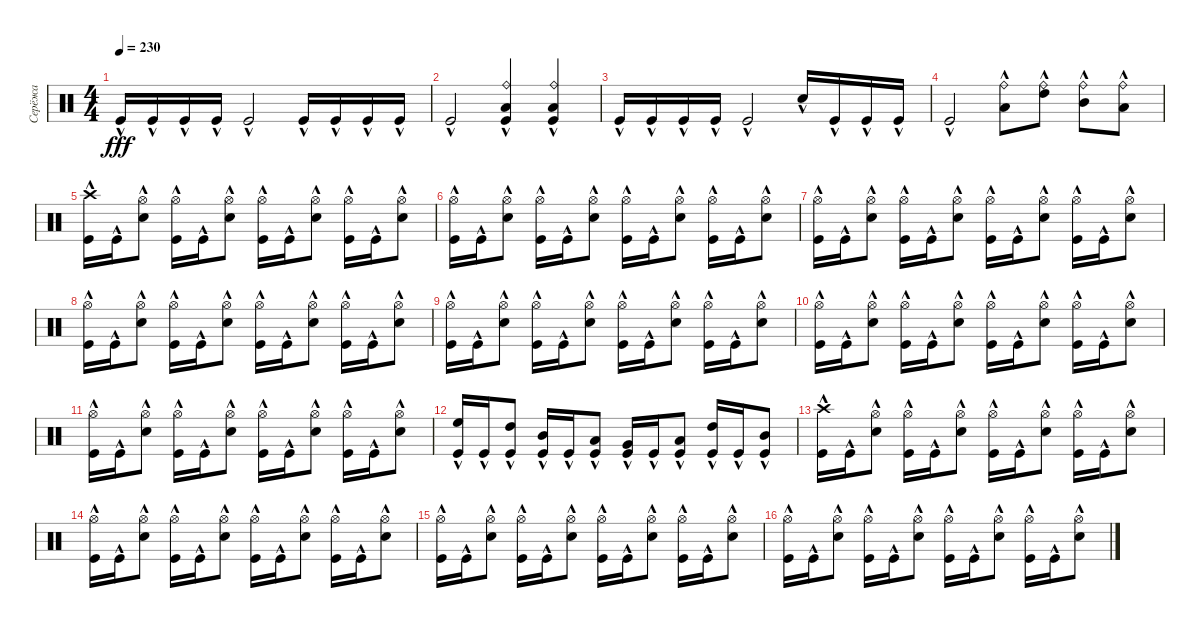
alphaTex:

\track ("Серёжа" "Серёжа") {instrument percussion}
\staff {score}
\articulation defaults
\ts (4 4)
\tempo 230
\clef neutral
\ks c "Kick (hit)"{hac}.16{dy fff} "Kick (hit)"{hac}.16 "Kick (hit)"{hac}.16 "Kick (hit)"{hac}.16 "Kick (hit)"{hac}.2 "Kick (hit)"{hac}.16 "Kick (hit)"{hac}.16 "Kick (hit)"{hac}.16 "Kick (hit)"{hac}.16
|
"Kick (hit)"{hac}.2 ("Ride (bell)" "Low Tom (hit)"{hac} "Kick (hit)"{hac}).4 ("Ride (bell)" "Low Tom (hit)"{hac} "Kick (hit)"{hac}).4 |
"Kick (hit)"{hac}.16 "Kick (hit)"{hac}.16 "Kick (hit)"{hac}.16 "Kick (hit)"{hac}.16 "Kick (hit)"{hac}.2 "Snare (hit) 2"{hac}.16 "Kick (hit)"{hac}.16 "Kick (hit)"{hac}.16 "Kick (hit)"{hac}.16 |
"Kick (hit)"{hac}.2 ("Ride (bell)" "Low Tom (hit)"{hac}).8 ("Ride (bell)" "High Tom (hit)"{hac}).8 ("Ride (bell)" "Mid Tom (hit)"{hac}).8 ("Ride (bell)" "Low Tom (hit)"{hac}).8 |
("Crash high (hit)" "Kick (hit)"{hac}).16 "Kick (hit)"{hac}.16 ("Hi-Hat (open)" "Snare (hit) 2"{hac}).8 ("Hi-Hat (open)" "Kick (hit)"{hac}).16 "Kick (hit)"{hac}.16 ("Hi-Hat (open)" "Snare (hit) 2"{hac}).8 ("Hi-Hat (open)" "Kick (hit)"{hac}).16 "Kick (hit)"{hac}.16 ("Hi-Hat (open)" "Snare (hit) 2"{hac}).8 ("Hi-Hat (open)" "Kick (hit)"{hac}).16 "Kick (hit)"{hac}.16 ("Hi-Hat (open)" "Snare (hit) 2"{hac}).8 |
("Hi-Hat (open)" "Kick (hit)"{hac}).16 "Kick (hit)"{hac}.16 ("Hi-Hat (open)" "Snare (hit) 2"{hac}).8 ("Hi-Hat (open)" "Kick (hit)"{hac}).16 "Kick (hit)"{hac}.16 ("Hi-Hat (open)" "Snare (hit) 2"{hac}).8 ("Hi-Hat (open)" "Kick (hit)"{hac}).16 "Kick (hit)"{hac}.16 ("Hi-Hat (open)" "Snare (hit) 2"{hac}).8 ("Hi-Hat (open)" "Kick (hit)"{hac}).16 "Kick (hit)"{hac}.16 ("Hi-Hat (open)" "Snare (hit) 2"{hac}).8 |
("Hi-Hat (open)" "Kick (hit)"{hac}).16 "Kick (hit)"{hac}.16 ("Hi-Hat (open)" "Snare (hit) 2"{hac}).8 ("Hi-Hat (open)" "Kick (hit)"{hac}).16 "Kick (hit)"{hac}.16 ("Hi-Hat (open)" "Snare (hit) 2"{hac}).8 ("Hi-Hat (open)" "Kick (hit)"{hac}).16 "Kick (hit)"{hac}.16 ("Hi-Hat (open)" "Snare (hit) 2"{hac}).8 ("Hi-Hat (open)" "Kick (hit)"{hac}).16 "Kick (hit)"{hac}.16 ("Hi-Hat (open)" "Snare (hit) 2"{hac}).8 |
("Hi-Hat (open)" "Kick (hit)"{hac}).16 "Kick (hit)"{hac}.16 ("Hi-Hat (open)" "Snare (hit) 2"{hac}).8 ("Hi-Hat (open)" "Kick (hit)"{hac}).16 "Kick (hit)"{hac}.16 ("Hi-Hat (open)" "Snare (hit) 2"{hac}).8 ("Hi-Hat (open)" "Kick (hit)"{hac}).16 "Kick (hit)"{hac}.16 ("Hi-Hat (open)" "Snare (hit) 2"{hac}).8 ("Hi-Hat (open)" "Kick (hit)"{hac}).16 "Kick (hit)"{hac}.16 ("Hi-Hat (open)" "Snare (hit) 2"{hac}).8 |
("Hi-Hat (open)" "Kick (hit)"{hac}).16 "Kick (hit)"{hac}.16 ("Hi-Hat (open)" "Snare (hit) 2"{hac}).8 ("Hi-Hat (open)" "Kick (hit)"{hac}).16 "Kick (hit)"{hac}.16 ("Hi-Hat (open)" "Snare (hit) 2"{hac}).8 ("Hi-Hat (open)" "Kick (hit)"{hac}).16 "Kick (hit)"{hac}.16 ("Hi-Hat (open)" "Snare (hit) 2"{hac}).8 ("Hi-Hat (open)" "Kick (hit)"{hac}).16 "Kick (hit)"{hac}.16 ("Hi-Hat (open)" "Snare (hit) 2"{hac}).8 |
("Hi-Hat (open)" "Kick (hit)"{hac}).16 "Kick (hit)"{hac}.16 ("Hi-Hat (open)" "Snare (hit) 2"{hac}).8 ("Hi-Hat (open)" "Kick (hit)"{hac}).16 "Kick (hit)"{hac}.16 ("Hi-Hat (open)" "Snare (hit) 2"{hac}).8 ("Hi-Hat (open)" "Kick (hit)"{hac}).16 "Kick (hit)"{hac}.16 ("Hi-Hat (open)" "Snare (hit) 2"{hac}).8 ("Hi-Hat (open)" "Kick (hit)"{hac}).16 "Kick (hit)"{hac}.16 ("Hi-Hat (open)" "Snare (hit) 2"{hac}).8 |
("Hi-Hat (open)" "Kick (hit)"{hac}).16 "Kick (hit)"{hac}.16 ("Hi-Hat (open)" "Snare (hit) 2"{hac}).8 ("Hi-Hat (open)" "Kick (hit)"{hac}).16 "Kick (hit)"{hac}.16 ("Hi-Hat (open)" "Snare (hit) 2"{hac}).8 ("Hi-Hat (open)" "Kick (hit)"{hac}).16 "Kick (hit)"{hac}.16 ("Hi-Hat (open)" "Snare (hit) 2"{hac}).8 ("Hi-Hat (open)" "Kick (hit)"{hac}).16 "Kick (hit)"{hac}.16 ("Hi-Hat (open)" "Snare (hit) 2"{hac}).8 |
("High Floor Tom (hit)"{hac} "Kick (hit)"{hac}).16 "Kick (hit)"{hac}.16 ("High Tom (hit)"{hac} "Kick (hit)"{hac}).8 ("Mid Tom (hit)"{hac} "Kick (hit)"{hac}).16 "Kick (hit)"{hac}.16 ("Low Tom (hit)"{hac} "Kick (hit)"{hac}).8 ("Very Low Tom (hit)"{hac} "Kick (hit)"{hac}).16 "Kick (hit)"{hac}.16 ("Low Tom (hit)"{hac} "Kick (hit)"{hac}).8 ("High Tom (hit)"{hac} "Kick (hit)"{hac}).16 "Kick (hit)"{hac}.16 ("Mid Tom (hit)"{hac} "Kick (hit)"{hac}).8 |
("Crash high (hit)" "Kick (hit)"{hac}).16 "Kick (hit)"{hac}.16 ("Hi-Hat (open)" "Snare (hit) 2"{hac}).8 ("Hi-Hat (open)" "Kick (hit)"{hac}).16 "Kick (hit)"{hac}.16 ("Hi-Hat (open)" "Snare (hit) 2"{hac}).8 ("Hi-Hat (open)" "Kick (hit)"{hac}).16 "Kick (hit)"{hac}.16 ("Hi-Hat (open)" "Snare (hit) 2"{hac}).8 ("Hi-Hat (open)" "Kick (hit)"{hac}).16 "Kick (hit)"{hac}.16 ("Hi-Hat (open)" "Snare (hit) 2"{hac}).8 |
("Hi-Hat (open)" "Kick (hit)"{hac}).16 "Kick (hit)"{hac}.16 ("Hi-Hat (open)" "Snare (hit) 2"{hac}).8 ("Hi-Hat (open)" "Kick (hit)"{hac}).16 "Kick (hit)"{hac}.16 ("Hi-Hat (open)" "Snare (hit) 2"{hac}).8 ("Hi-Hat (open)" "Kick (hit)"{hac}).16 "Kick (hit)"{hac}.16 ("Hi-Hat (open)" "Snare (hit) 2"{hac}).8 ("Hi-Hat (open)" "Kick (hit)"{hac}).16 "Kick (hit)"{hac}.16 ("Hi-Hat (open)" "Snare (hit) 2"{hac}).8 |
("Hi-Hat (open)" "Kick (hit)"{hac}).16 "Kick (hit)"{hac}.16 ("Hi-Hat (open)" "Snare (hit) 2"{hac}).8 ("Hi-Hat (open)" "Kick (hit)"{hac}).16 "Kick (hit)"{hac}.16 ("Hi-Hat (open)" "Snare (hit) 2"{hac}).8 ("Hi-Hat (open)" "Kick (hit)"{hac}).16 "Kick (hit)"{hac}.16 ("Hi-Hat (open)" "Snare (hit) 2"{hac}).8 ("Hi-Hat (open)" "Kick (hit)"{hac}).16 "Kick (hit)"{hac}.16 ("Hi-Hat (open)" "Snare (hit) 2"{hac}).8 |
("Hi-Hat (open)" "Kick (hit)"{hac}).16 "Kick (hit)"{hac}.16 ("Hi-Hat (open)" "Snare (hit) 2"{hac}).8 ("Hi-Hat (open)" "Kick (hit)"{hac}).16 "Kick (hit)"{hac}.16 ("Hi-Hat (open)" "Snare (hit) 2"{hac}).8 ("Hi-Hat (open)" "Kick (hit)"{hac}).16 "Kick (hit)"{hac}.16 ("Hi-Hat (open)" "Snare (hit) 2"{hac}).8 ("Hi-Hat (open)" "Kick (hit)"{hac}).16 "Kick (hit)"{hac}.16 ("Hi-Hat (open)" "Snare (hit) 2"{hac}).8
